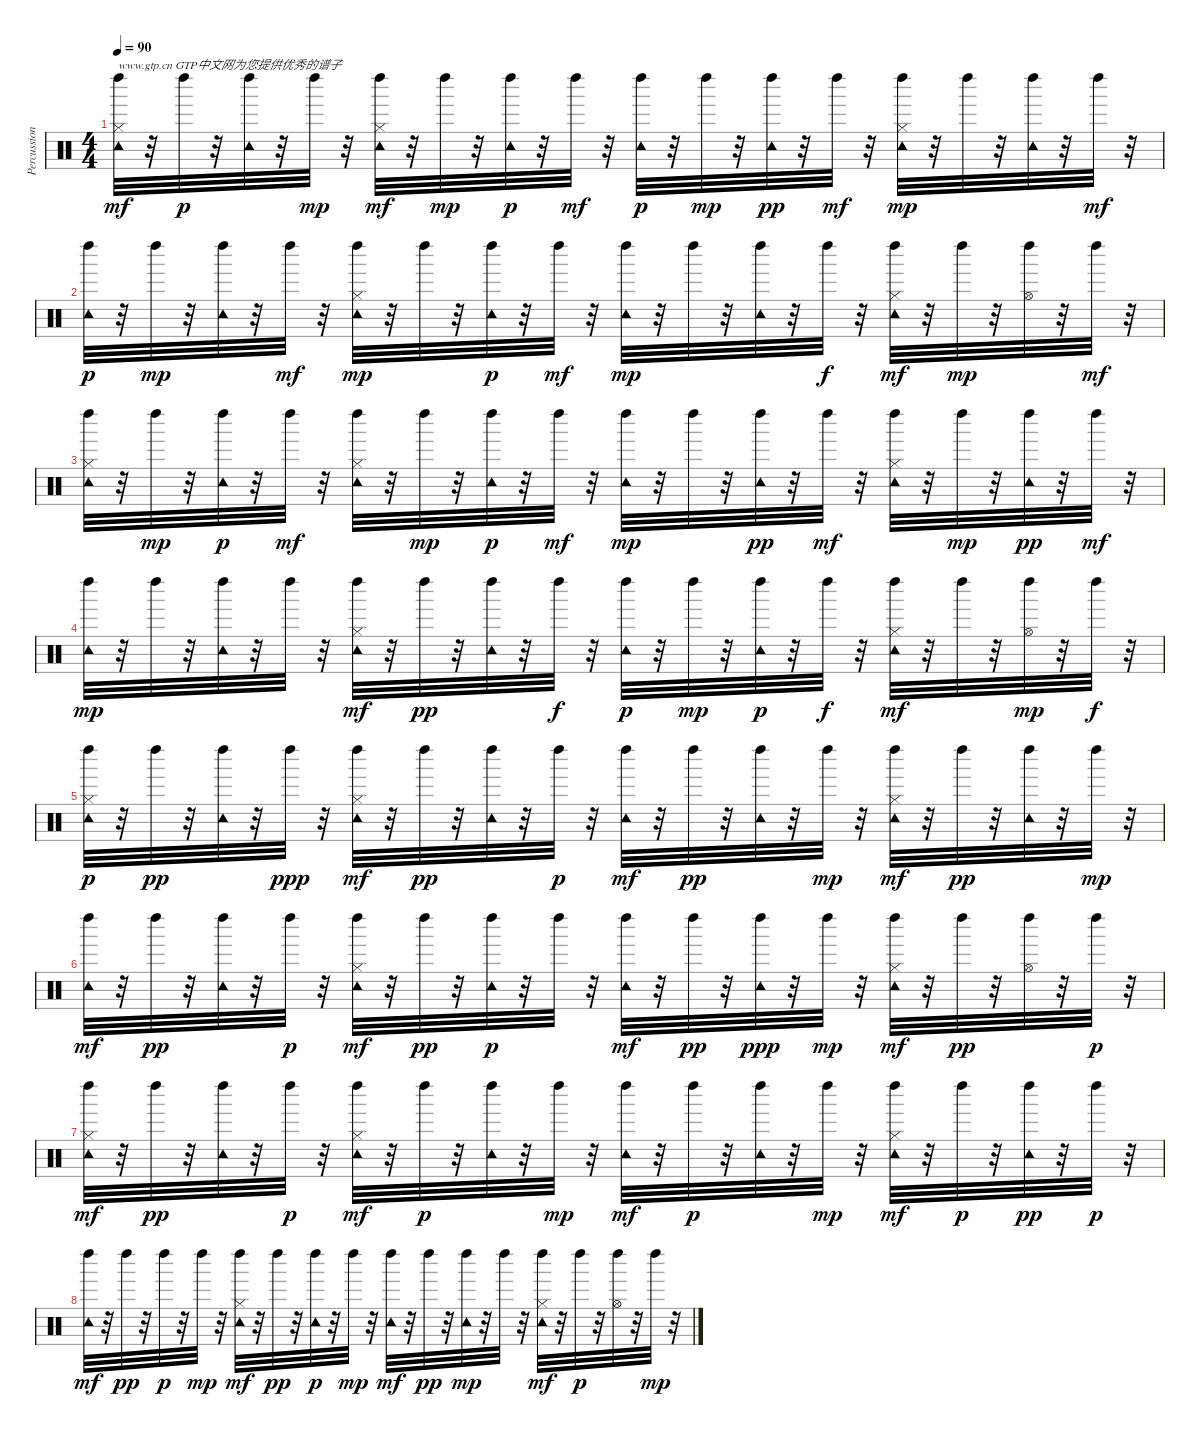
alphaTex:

\track ("Percussions" "Percussion") {instrument percussion}
\staff {score}
\articulation defaults
\ts (4 4)
\tempo 90
\clef neutral
\ks c
("Hi-Hat (closed)" "Tambourine (hit)" "Left Maraca (hit)").32{txt "www.gtp.cn GTP中文网为您提供优秀的谱子" dy mf} r.32 "Left Maraca (hit)".32{dy p} r.32 ("Tambourine (hit)" "Left Maraca (hit)").32 r.32 "Left Maraca (hit)".32{dy mp} r.32 ("Hi-Hat (closed)" "Tambourine (hit)" "Left Maraca (hit)").32{dy mf} r.32 "Left Maraca (hit)".32{dy mp} r.32 ("Tambourine (hit)" "Left Maraca (hit)").32{dy p} r.32 "Left Maraca (hit)".32{dy mf} r.32 ("Tambourine (hit)" "Left Maraca (hit)").32{dy p} r.32 "Left Maraca (hit)".32{dy mp} r.32 ("Tambourine (hit)" "Left Maraca (hit)").32{dy pp} r.32 "Left Maraca (hit)".32{dy mf} r.32 ("Hi-Hat (closed)" "Tambourine (hit)" "Left Maraca (hit)").32{dy mp} r.32 "Left Maraca (hit)".32 r.32 ("Tambourine (hit)" "Left Maraca (hit)").32 r.32 "Left Maraca (hit)".32{dy mf} r.32 |
("Tambourine (hit)" "Left Maraca (hit)").32{dy p} r.32 "Left Maraca (hit)".32{dy mp} r.32 ("Tambourine (hit)" "Left Maraca (hit)").32 r.32 "Left Maraca (hit)".32{dy mf} r.32 ("Hi-Hat (closed)" "Tambourine (hit)" "Left Maraca (hit)").32{dy mp} r.32 "Left Maraca (hit)".32 r.32 ("Tambourine (hit)" "Left Maraca (hit)").32{dy p} r.32 "Left Maraca (hit)".32{dy mf} r.32 ("Tambourine (hit)" "Left Maraca (hit)").32{dy mp} r.32 "Left Maraca (hit)".32 r.32 ("Tambourine (hit)" "Left Maraca (hit)").32 r.32 "Left Maraca (hit)".32{dy f} r.32 ("Hi-Hat (closed)" "Tambourine (hit)" "Left Maraca (hit)").32{dy mf} r.32 "Left Maraca (hit)".32{dy mp} r.32 ("Hi-Hat (open)" "Left Maraca (hit)").32 r.32 "Left Maraca (hit)".32{dy mf} r.32 |
("Hi-Hat (closed)" "Tambourine (hit)" "Left Maraca (hit)").32 r.32 "Left Maraca (hit)".32{dy mp} r.32 ("Tambourine (hit)" "Left Maraca (hit)").32{dy p} r.32 "Left Maraca (hit)".32{dy mf} r.32 ("Hi-Hat (closed)" "Tambourine (hit)" "Left Maraca (hit)").32 r.32 "Left Maraca (hit)".32{dy mp} r.32 ("Tambourine (hit)" "Left Maraca (hit)").32{dy p} r.32 "Left Maraca (hit)".32{dy mf} r.32 ("Tambourine (hit)" "Left Maraca (hit)").32{dy mp} r.32 "Left Maraca (hit)".32 r.32 ("Tambourine (hit)" "Left Maraca (hit)").32{dy pp} r.32 "Left Maraca (hit)".32{dy mf} r.32 ("Hi-Hat (closed)" "Tambourine (hit)" "Left Maraca (hit)").32 r.32 "Left Maraca (hit)".32{dy mp} r.32 ("Tambourine (hit)" "Left Maraca (hit)").32{dy pp} r.32 "Left Maraca (hit)".32{dy mf} r.32 |
("Tambourine (hit)" "Left Maraca (hit)").32{dy mp} r.32 "Left Maraca (hit)".32 r.32 ("Tambourine (hit)" "Left Maraca (hit)").32 r.32 "Left Maraca (hit)".32 r.32 ("Hi-Hat (closed)" "Tambourine (hit)" "Left Maraca (hit)").32{dy mf} r.32 "Left Maraca (hit)".32{dy pp} r.32 ("Tambourine (hit)" "Left Maraca (hit)").32 r.32 "Left Maraca (hit)".32{dy f} r.32 ("Tambourine (hit)" "Left Maraca (hit)").32{dy p} r.32 "Left Maraca (hit)".32{dy mp} r.32 ("Tambourine (hit)" "Left Maraca (hit)").32{dy p} r.32 "Left Maraca (hit)".32{dy f} r.32 ("Hi-Hat (closed)" "Tambourine (hit)" "Left Maraca (hit)").32{dy mf} r.32 "Left Maraca (hit)".32 r.32 ("Hi-Hat (open)" "Left Maraca (hit)").32{dy mp} r.32 "Left Maraca (hit)".32{dy f} r.32 |
("Hi-Hat (closed)" "Tambourine (hit)" "Left Maraca (hit)").32{dy p} r.32 "Left Maraca (hit)".32{dy pp} r.32 ("Tambourine (hit)" "Left Maraca (hit)").32 r.32 "Left Maraca (hit)".32{dy ppp} r.32 ("Hi-Hat (closed)" "Tambourine (hit)" "Left Maraca (hit)").32{dy mf} r.32 "Left Maraca (hit)".32{dy pp} r.32 ("Tambourine (hit)" "Left Maraca (hit)").32 r.32 "Left Maraca (hit)".32{dy p} r.32 ("Tambourine (hit)" "Left Maraca (hit)").32{dy mf} r.32 "Left Maraca (hit)".32{dy pp} r.32 ("Tambourine (hit)" "Left Maraca (hit)").32 r.32 "Left Maraca (hit)".32{dy mp} r.32 ("Hi-Hat (closed)" "Tambourine (hit)" "Left Maraca (hit)").32{dy mf} r.32 "Left Maraca (hit)".32{dy pp} r.32 ("Tambourine (hit)" "Left Maraca (hit)").32 r.32 "Left Maraca (hit)".32{dy mp} r.32 |
("Tambourine (hit)" "Left Maraca (hit)").32{dy mf} r.32 "Left Maraca (hit)".32{dy pp} r.32 ("Tambourine (hit)" "Left Maraca (hit)").32 r.32 "Left Maraca (hit)".32{dy p} r.32 ("Hi-Hat (closed)" "Tambourine (hit)" "Left Maraca (hit)").32{dy mf} r.32 "Left Maraca (hit)".32{dy pp} r.32 ("Tambourine (hit)" "Left Maraca (hit)").32{dy p} r.32 "Left Maraca (hit)".32 r.32 ("Tambourine (hit)" "Left Maraca (hit)").32{dy mf} r.32 "Left Maraca (hit)".32{dy pp} r.32 ("Tambourine (hit)" "Left Maraca (hit)").32{dy ppp} r.32 "Left Maraca (hit)".32{dy mp} r.32 ("Hi-Hat (closed)" "Tambourine (hit)" "Left Maraca (hit)").32{dy mf} r.32 "Left Maraca (hit)".32{dy pp} r.32 ("Hi-Hat (open)" "Left Maraca (hit)").32 r.32 "Left Maraca (hit)".32{dy p} r.32 |
("Hi-Hat (closed)" "Tambourine (hit)" "Left Maraca (hit)").32{dy mf} r.32 "Left Maraca (hit)".32{dy pp} r.32 ("Tambourine (hit)" "Left Maraca (hit)").32 r.32 "Left Maraca (hit)".32{dy p} r.32 ("Hi-Hat (closed)" "Tambourine (hit)" "Left Maraca (hit)").32{dy mf} r.32 "Left Maraca (hit)".32{dy p} r.32 ("Tambourine (hit)" "Left Maraca (hit)").32 r.32 "Left Maraca (hit)".32{dy mp} r.32 ("Tambourine (hit)" "Left Maraca (hit)").32{dy mf} r.32 "Left Maraca (hit)".32{dy p} r.32 ("Tambourine (hit)" "Left Maraca (hit)").32 r.32 "Left Maraca (hit)".32{dy mp} r.32 ("Hi-Hat (closed)" "Tambourine (hit)" "Left Maraca (hit)").32{dy mf} r.32 "Left Maraca (hit)".32{dy p} r.32 ("Tambourine (hit)" "Left Maraca (hit)").32{dy pp} r.32 "Left Maraca (hit)".32{dy p} r.32 |
("Tambourine (hit)" "Left Maraca (hit)").32{dy mf} r.32 "Left Maraca (hit)".32{dy pp} r.32 "Left Maraca (hit)".32{dy p} r.32 "Left Maraca (hit)".32{dy mp} r.32 ("Hi-Hat (closed)" "Tambourine (hit)" "Left Maraca (hit)").32{dy mf} r.32 "Left Maraca (hit)".32{dy pp} r.32 ("Tambourine (hit)" "Left Maraca (hit)").32{dy p} r.32 "Left Maraca (hit)".32{dy mp} r.32 ("Tambourine (hit)" "Left Maraca (hit)").32{dy mf} r.32 "Left Maraca (hit)".32{dy pp} r.32 ("Tambourine (hit)" "Left Maraca (hit)").32{dy mp} r.32 "Left Maraca (hit)".32 r.32 ("Hi-Hat (closed)" "Tambourine (hit)" "Left Maraca (hit)").32{dy mf} r.32 "Left Maraca (hit)".32{dy p} r.32 ("Hi-Hat (open)" "Left Maraca (hit)").32 r.32 "Left Maraca (hit)".32{dy mp} r.32
